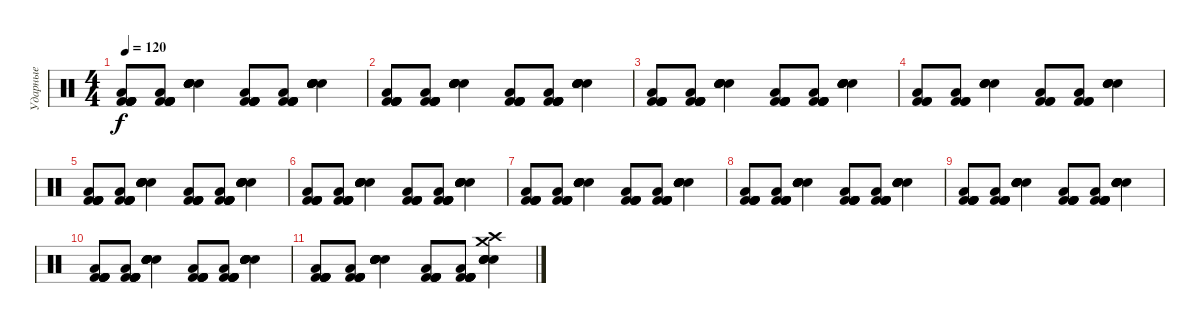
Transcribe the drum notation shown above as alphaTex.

\track ("Ударные" "Ударные") {instrument percussion}
\staff {score}
\articulation defaults
\ts (4 4)
\tempo 120
\clef neutral
\ks c
("Kick (hit) 2" "Kick (hit) 2" "Kick (hit) 2" "Kick (hit) 2" "Low Floor Tom (hit)" "Kick (hit) 2").8{dy f} ("Kick (hit) 2" "Kick (hit) 2" "Low Floor Tom (hit)" "Kick (hit) 2" "Kick (hit) 2" "Kick (hit) 2").8 ("Snare (hit) 2" "Hand Clap (hit)" "Hand Clap (hit)" "Hand Clap (hit)" "Hand Clap (hit)" "Snare (hit) 2").4 ("Kick (hit) 2" "Kick (hit) 2" "Kick (hit) 2" "Kick (hit) 2" "Low Floor Tom (hit)" "Kick (hit) 2").8 ("Kick (hit) 2" "Kick (hit) 2" "Low Floor Tom (hit)" "Kick (hit) 2" "Kick (hit) 2" "Kick (hit) 2").8 ("Snare (hit) 2" "Hand Clap (hit)" "Hand Clap (hit)" "Hand Clap (hit)" "Hand Clap (hit)" "Snare (hit) 2").4 |
("Kick (hit) 2" "Kick (hit) 2" "Kick (hit) 2" "Kick (hit) 2" "Low Floor Tom (hit)" "Kick (hit) 2").8 ("Kick (hit) 2" "Kick (hit) 2" "Low Floor Tom (hit)" "Kick (hit) 2" "Kick (hit) 2" "Kick (hit) 2").8 ("Snare (hit) 2" "Hand Clap (hit)" "Hand Clap (hit)" "Hand Clap (hit)" "Hand Clap (hit)" "Snare (hit) 2").4 ("Kick (hit) 2" "Kick (hit) 2" "Kick (hit) 2" "Kick (hit) 2" "Low Floor Tom (hit)" "Kick (hit) 2").8 ("Kick (hit) 2" "Kick (hit) 2" "Low Floor Tom (hit)" "Kick (hit) 2" "Kick (hit) 2" "Kick (hit) 2").8 ("Snare (hit) 2" "Hand Clap (hit)" "Hand Clap (hit)" "Hand Clap (hit)" "Hand Clap (hit)" "Snare (hit) 2").4 |
("Kick (hit) 2" "Kick (hit) 2" "Kick (hit) 2" "Kick (hit) 2" "Low Floor Tom (hit)" "Kick (hit) 2").8 ("Kick (hit) 2" "Kick (hit) 2" "Low Floor Tom (hit)" "Kick (hit) 2" "Kick (hit) 2" "Kick (hit) 2").8 ("Snare (hit) 2" "Hand Clap (hit)" "Hand Clap (hit)" "Hand Clap (hit)" "Hand Clap (hit)" "Snare (hit) 2").4 ("Kick (hit) 2" "Kick (hit) 2" "Kick (hit) 2" "Kick (hit) 2" "Low Floor Tom (hit)" "Kick (hit) 2").8 ("Kick (hit) 2" "Kick (hit) 2" "Low Floor Tom (hit)" "Kick (hit) 2" "Kick (hit) 2" "Kick (hit) 2").8 ("Snare (hit) 2" "Hand Clap (hit)" "Hand Clap (hit)" "Hand Clap (hit)" "Hand Clap (hit)" "Snare (hit) 2").4 |
("Kick (hit) 2" "Kick (hit) 2" "Low Floor Tom (hit)" "Kick (hit) 2").8 ("Low Floor Tom (hit)" "Kick (hit) 2" "Kick (hit) 2" "Kick (hit) 2").8 ("Hand Clap (hit)" "Hand Clap (hit)" "Snare (hit) 2" "Snare (hit) 2").4 ("Kick (hit) 2" "Kick (hit) 2" "Low Floor Tom (hit)" "Kick (hit) 2").8 ("Low Floor Tom (hit)" "Kick (hit) 2" "Kick (hit) 2" "Kick (hit) 2").8 ("Hand Clap (hit)" "Hand Clap (hit)" "Hand Clap (hit)" "Snare (hit) 2").4 |
("Kick (hit) 2" "Kick (hit) 2" "Kick (hit) 2" "Kick (hit) 2" "Low Floor Tom (hit)" "Kick (hit) 2").8 ("Kick (hit) 2" "Kick (hit) 2" "Low Floor Tom (hit)" "Kick (hit) 2" "Kick (hit) 2" "Kick (hit) 2").8 ("Snare (hit) 2" "Hand Clap (hit)" "Hand Clap (hit)" "Hand Clap (hit)" "Hand Clap (hit)" "Snare (hit) 2").4 ("Kick (hit) 2" "Kick (hit) 2" "Kick (hit) 2" "Kick (hit) 2" "Low Floor Tom (hit)" "Kick (hit) 2").8 ("Kick (hit) 2" "Kick (hit) 2" "Low Floor Tom (hit)" "Kick (hit) 2" "Kick (hit) 2" "Kick (hit) 2").8 ("Snare (hit) 2" "Hand Clap (hit)" "Hand Clap (hit)" "Hand Clap (hit)" "Hand Clap (hit)" "Snare (hit) 2").4 |
("Kick (hit) 2" "Kick (hit) 2" "Kick (hit) 2" "Kick (hit) 2" "Low Floor Tom (hit)" "Kick (hit) 2").8 ("Kick (hit) 2" "Kick (hit) 2" "Low Floor Tom (hit)" "Kick (hit) 2" "Kick (hit) 2" "Kick (hit) 2").8 ("Snare (hit) 2" "Hand Clap (hit)" "Hand Clap (hit)" "Hand Clap (hit)" "Hand Clap (hit)" "Snare (hit) 2").4 ("Kick (hit) 2" "Kick (hit) 2" "Kick (hit) 2" "Kick (hit) 2" "Low Floor Tom (hit)" "Kick (hit) 2").8 ("Kick (hit) 2" "Kick (hit) 2" "Low Floor Tom (hit)" "Kick (hit) 2" "Kick (hit) 2" "Kick (hit) 2").8 ("Snare (hit) 2" "Hand Clap (hit)" "Hand Clap (hit)" "Hand Clap (hit)" "Hand Clap (hit)" "Snare (hit) 2").4 |
("Kick (hit) 2" "Kick (hit) 2" "Kick (hit) 2" "Kick (hit) 2" "Low Floor Tom (hit)" "Kick (hit) 2").8 ("Kick (hit) 2" "Kick (hit) 2" "Low Floor Tom (hit)" "Kick (hit) 2" "Kick (hit) 2" "Kick (hit) 2").8 ("Snare (hit) 2" "Hand Clap (hit)" "Hand Clap (hit)" "Hand Clap (hit)" "Hand Clap (hit)" "Snare (hit) 2").4 ("Kick (hit) 2" "Kick (hit) 2" "Kick (hit) 2" "Kick (hit) 2" "Low Floor Tom (hit)" "Kick (hit) 2").8 ("Kick (hit) 2" "Kick (hit) 2" "Low Floor Tom (hit)" "Kick (hit) 2" "Kick (hit) 2" "Kick (hit) 2").8 ("Snare (hit) 2" "Hand Clap (hit)" "Hand Clap (hit)" "Hand Clap (hit)" "Hand Clap (hit)" "Snare (hit) 2").4 |
("Kick (hit) 2" "Kick (hit) 2" "Kick (hit) 2" "Kick (hit) 2" "Low Floor Tom (hit)" "Kick (hit) 2").8 ("Kick (hit) 2" "Kick (hit) 2" "Low Floor Tom (hit)" "Kick (hit) 2" "Kick (hit) 2" "Kick (hit) 2").8 ("Snare (hit) 2" "Hand Clap (hit)" "Hand Clap (hit)" "Hand Clap (hit)" "Hand Clap (hit)" "Snare (hit) 2").4 ("Kick (hit) 2" "Kick (hit) 2" "Kick (hit) 2" "Kick (hit) 2" "Low Floor Tom (hit)" "Kick (hit) 2").8 ("Kick (hit) 2" "Kick (hit) 2" "Low Floor Tom (hit)" "Kick (hit) 2" "Kick (hit) 2" "Kick (hit) 2").8 ("Snare (hit) 2" "Hand Clap (hit)" "Hand Clap (hit)" "Hand Clap (hit)" "Hand Clap (hit)" "Snare (hit) 2").4 |
("Kick (hit) 2" "Kick (hit) 2" "Kick (hit) 2" "Kick (hit) 2" "Low Floor Tom (hit)" "Kick (hit) 2").8 ("Kick (hit) 2" "Kick (hit) 2" "Low Floor Tom (hit)" "Kick (hit) 2" "Kick (hit) 2" "Kick (hit) 2").8 ("Snare (hit) 2" "Hand Clap (hit)" "Hand Clap (hit)" "Hand Clap (hit)" "Hand Clap (hit)" "Snare (hit) 2").4 ("Kick (hit) 2" "Kick (hit) 2" "Kick (hit) 2" "Kick (hit) 2" "Low Floor Tom (hit)" "Kick (hit) 2").8 ("Kick (hit) 2" "Kick (hit) 2" "Low Floor Tom (hit)" "Kick (hit) 2" "Kick (hit) 2" "Kick (hit) 2").8 ("Snare (hit) 2" "Hand Clap (hit)" "Hand Clap (hit)" "Hand Clap (hit)" "Hand Clap (hit)" "Snare (hit) 2").4 |
("Kick (hit) 2" "Kick (hit) 2" "Kick (hit) 2" "Kick (hit) 2" "Low Floor Tom (hit)" "Kick (hit) 2").8 ("Kick (hit) 2" "Kick (hit) 2" "Low Floor Tom (hit)" "Kick (hit) 2" "Kick (hit) 2" "Kick (hit) 2").8 ("Snare (hit) 2" "Hand Clap (hit)" "Hand Clap (hit)" "Hand Clap (hit)" "Hand Clap (hit)" "Snare (hit) 2").4 ("Kick (hit) 2" "Kick (hit) 2" "Kick (hit) 2" "Kick (hit) 2" "Low Floor Tom (hit)" "Kick (hit) 2").8 ("Kick (hit) 2" "Kick (hit) 2" "Low Floor Tom (hit)" "Kick (hit) 2" "Kick (hit) 2" "Kick (hit) 2").8 ("Snare (hit) 2" "Hand Clap (hit)" "Hand Clap (hit)" "Hand Clap (hit)" "Hand Clap (hit)" "Snare (hit) 2").4 |
("Kick (hit) 2" "Kick (hit) 2" "Kick (hit) 2" "Kick (hit) 2" "Low Floor Tom (hit)" "Kick (hit) 2").8 ("Kick (hit) 2" "Kick (hit) 2" "Low Floor Tom (hit)" "Kick (hit) 2" "Kick (hit) 2" "Kick (hit) 2").8 ("Snare (hit) 2" "Hand Clap (hit)" "Hand Clap (hit)" "Hand Clap (hit)" "Hand Clap (hit)" "Snare (hit) 2").4 ("Kick (hit) 2" "Kick (hit) 2" "Kick (hit) 2" "Kick (hit) 2" "Low Floor Tom (hit)" "Kick (hit) 2").8 ("Kick (hit) 2" "Kick (hit) 2" "Low Floor Tom (hit)" "Kick (hit) 2" "Kick (hit) 2" "Kick (hit) 2").8 ("Crash medium (hit)" "Crash high (hit)" "Hand Clap (hit)" "Hand Clap (hit)" "Hand Clap (hit)" "Snare (hit) 2").4
